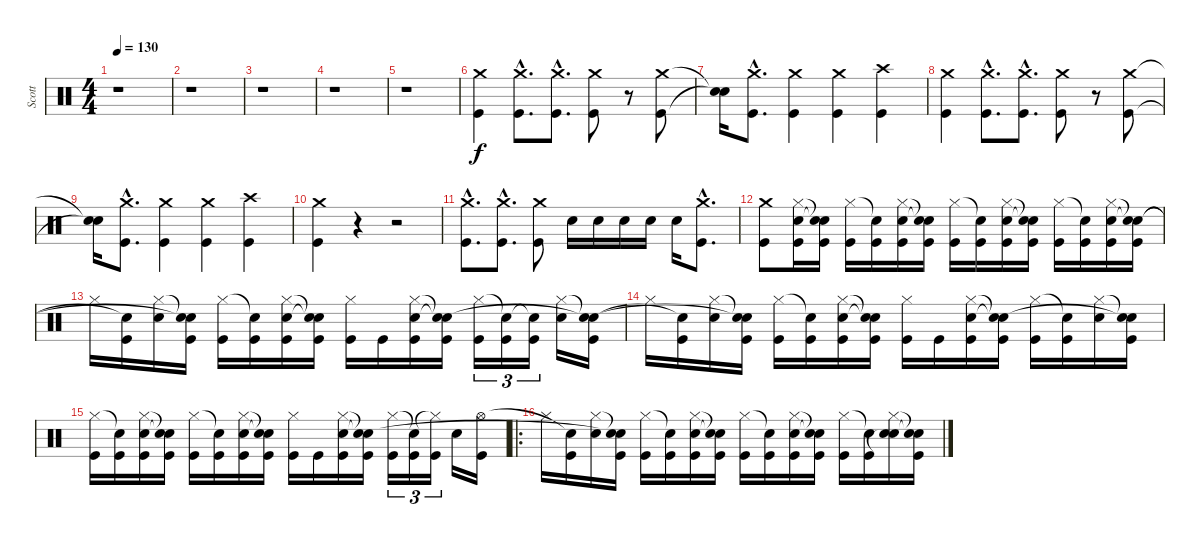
\track ("Scott" "Scott") {instrument percussion}
\staff {score}
\articulation defaults
\ts (4 4)
\tempo 130
\clef neutral
\ks c
r.1{dy f} |
r.1 |
r.1 |
r.1 |
r.1 |
("Kick (hit)" "Crash medium (hit)").4 ("Kick (hit)"{hac} "Crash medium (hit)"{hac}).8{d} ("Kick (hit)"{hac} "Crash medium (hit)"{hac}).8{d} ("Kick (hit)" "Crash medium (hit)").8 r.8 ("Kick (hit)" "Crash medium (hit)").8 |
("Snare (hit)"{t} "Snare (hit)"{t}).16 ("Kick (hit)"{hac} "Crash medium (hit)"{hac}).8{d} ("Kick (hit)" "Crash medium (hit)").4 ("Kick (hit)" "Crash medium (hit)").4 ("Kick (hit)" "Crash high (hit)").4 |
("Kick (hit)" "Crash medium (hit)").4 ("Kick (hit)"{hac} "Crash medium (hit)"{hac}).8{d} ("Kick (hit)"{hac} "Crash medium (hit)"{hac}).8{d} ("Kick (hit)" "Crash medium (hit)").8 r.8 ("Kick (hit)" "Crash medium (hit)").8 |
("Snare (hit)"{t} "Snare (hit)"{t}).16 ("Kick (hit)"{hac} "Crash medium (hit)"{hac}).8{d} ("Kick (hit)" "Crash medium (hit)").4 ("Kick (hit)" "Crash medium (hit)").4 ("Kick (hit)" "Crash high (hit)").4 |
("Kick (hit)" "Crash medium (hit)").4 r.4 r.2 |
("Kick (hit)"{hac} "Crash medium (hit)"{hac}).8{d} ("Kick (hit)"{hac} "Crash medium (hit)"{hac}).8{d} ("Kick (hit)" "Crash medium (hit)").8 "Snare (hit) 2".16 "Snare (hit) 2".16 "Snare (hit) 2".16 "Snare (hit) 2".16 "Snare (hit) 2".16 ("Kick (hit)"{hac} "Crash medium (hit)"{hac}).8{d} |
("Kick (hit)" "Crash medium (hit)").8 ("Kick (hit)" "Snare (hit) 2" "Hi-Hat (closed)").16 ("Kick (hit)" "Snare (hit)"{t} "Snare (hit)"{t}).16 ("Kick (hit)" "Hi-Hat (closed)").16 ("Kick (hit)" "Snare (hit)"{t}).16 ("Kick (hit)" "Snare (hit) 2" "Hi-Hat (closed)").16 ("Kick (hit)" "Snare (hit)"{t} "Snare (hit)"{t}).16 ("Kick (hit)" "Hi-Hat (closed)").16 ("Kick (hit)" "Snare (hit)"{t}).16 ("Kick (hit)" "Snare (hit) 2" "Hi-Hat (closed)").16 ("Kick (hit)" "Snare (hit)"{t} "Snare (hit)"{t}).16 ("Kick (hit)" "Hi-Hat (closed)").16 ("Kick (hit)" "Snare (hit)"{t}).16 ("Kick (hit)" "Snare (hit) 2" "Hi-Hat (closed)").16 ("Kick (hit)" "Snare (hit)"{t} "Snare (hit)"{t}).16 |
"Hi-Hat (closed)".16 ("Kick (hit)" "Snare (hit)"{t}).16 ("Snare (hit) 2" "Hi-Hat (closed)").16 ("Kick (hit)" "Snare (hit)"{t} "Snare (hit)"{t}).16 ("Kick (hit)" "Hi-Hat (closed)").16 ("Kick (hit)" "Snare (hit)"{t}).16 ("Kick (hit)" "Snare (hit) 2" "Hi-Hat (closed)").16 ("Kick (hit)" "Snare (hit)"{t} "Snare (hit)"{t}).16 ("Kick (hit)" "Hi-Hat (closed)").16 "Kick (hit)".16 ("Kick (hit)" "Snare (hit) 2" "Hi-Hat (closed)").16 ("Kick (hit)" "Snare (hit)"{t} "Snare (hit)"{t}).16 ("Kick (hit)" "Hi-Hat (closed)").16{tu (3 2)} ("Kick (hit)" "Snare (hit)"{t}).16{tu (3 2)} ("Kick (hit)" "Snare (hit)"{t}).16{tu (3 2)} ("Snare (hit) 2" "Hi-Hat (closed)").16 ("Kick (hit)" "Snare (hit)"{t} "Snare (hit)"{t}).16 |
"Hi-Hat (closed)".16 ("Kick (hit)" "Snare (hit)"{t}).16 ("Snare (hit) 2" "Hi-Hat (closed)").16 ("Kick (hit)" "Snare (hit)"{t} "Snare (hit)"{t}).16 ("Kick (hit)" "Hi-Hat (closed)").16 ("Kick (hit)" "Snare (hit)"{t}).16 ("Kick (hit)" "Snare (hit) 2" "Hi-Hat (closed)").16 ("Kick (hit)" "Snare (hit)"{t} "Snare (hit)"{t}).16 ("Kick (hit)" "Hi-Hat (closed)").16 "Kick (hit)".16 ("Kick (hit)" "Snare (hit) 2" "Hi-Hat (closed)").16 ("Kick (hit)" "Snare (hit)"{t} "Snare (hit)"{t}).16 ("Kick (hit)" "Hi-Hat (closed)").16 ("Kick (hit)" "Snare (hit)"{t}).16 ("Snare (hit) 2" "Hi-Hat (closed)").16 ("Kick (hit)" "Snare (hit)"{t} "Snare (hit)"{t}).16 |
("Kick (hit)" "Hi-Hat (closed)").16 ("Kick (hit)" "Snare (hit)"{t}).16 ("Kick (hit)" "Snare (hit) 2" "Hi-Hat (closed)").16 ("Kick (hit)" "Snare (hit)"{t} "Snare (hit)"{t}).16 ("Kick (hit)" "Hi-Hat (closed)").16 ("Kick (hit)" "Snare (hit)"{t}).16 ("Kick (hit)" "Snare (hit) 2" "Hi-Hat (closed)").16 ("Kick (hit)" "Snare (hit)"{t} "Snare (hit)"{t}).16 ("Kick (hit)" "Hi-Hat (closed)").16 "Kick (hit)".16 ("Kick (hit)" "Snare (hit) 2" "Hi-Hat (closed)").16 ("Kick (hit)" "Snare (hit)"{t} "Snare (hit)"{t}).16 ("Kick (hit)" "Hi-Hat (closed)").16{tu (3 2)} ("Kick (hit)" "Snare (hit)"{t}).16{tu (3 2)} ("Kick (hit)" "Hi-Hat (closed)"{t}).16{tu (3 2)} "Snare (hit) 2".16 ("Kick (hit)" "Hi-Hat (open)").16 |
\ro "Hi-Hat (closed)".16
("Kick (hit)" "Snare (hit)"{t}).16 ("Snare (hit) 2" "Hi-Hat (closed)").16 ("Kick (hit)" "Snare (hit)"{t} "Snare (hit)"{t}).16 ("Kick (hit)" "Hi-Hat (closed)").16 ("Kick (hit)" "Snare (hit)"{t}).16 ("Kick (hit)" "Snare (hit) 2" "Hi-Hat (closed)").16 ("Kick (hit)" "Snare (hit)"{t} "Snare (hit)"{t}).16 ("Kick (hit)" "Hi-Hat (closed)").16 ("Kick (hit)" "Snare (hit)"{t}).16 ("Kick (hit)" "Snare (hit) 2" "Hi-Hat (closed)").16 ("Kick (hit)" "Snare (hit)"{t} "Snare (hit)"{t}).16 ("Kick (hit)" "Hi-Hat (closed)").16 ("Kick (hit)" "Snare (hit)"{t}).16 ("Snare (hit)"{t} "Snare (hit) 2" "Hi-Hat (closed)").16 ("Kick (hit)" "Snare (hit)"{t} "Snare (hit)"{t}).16
